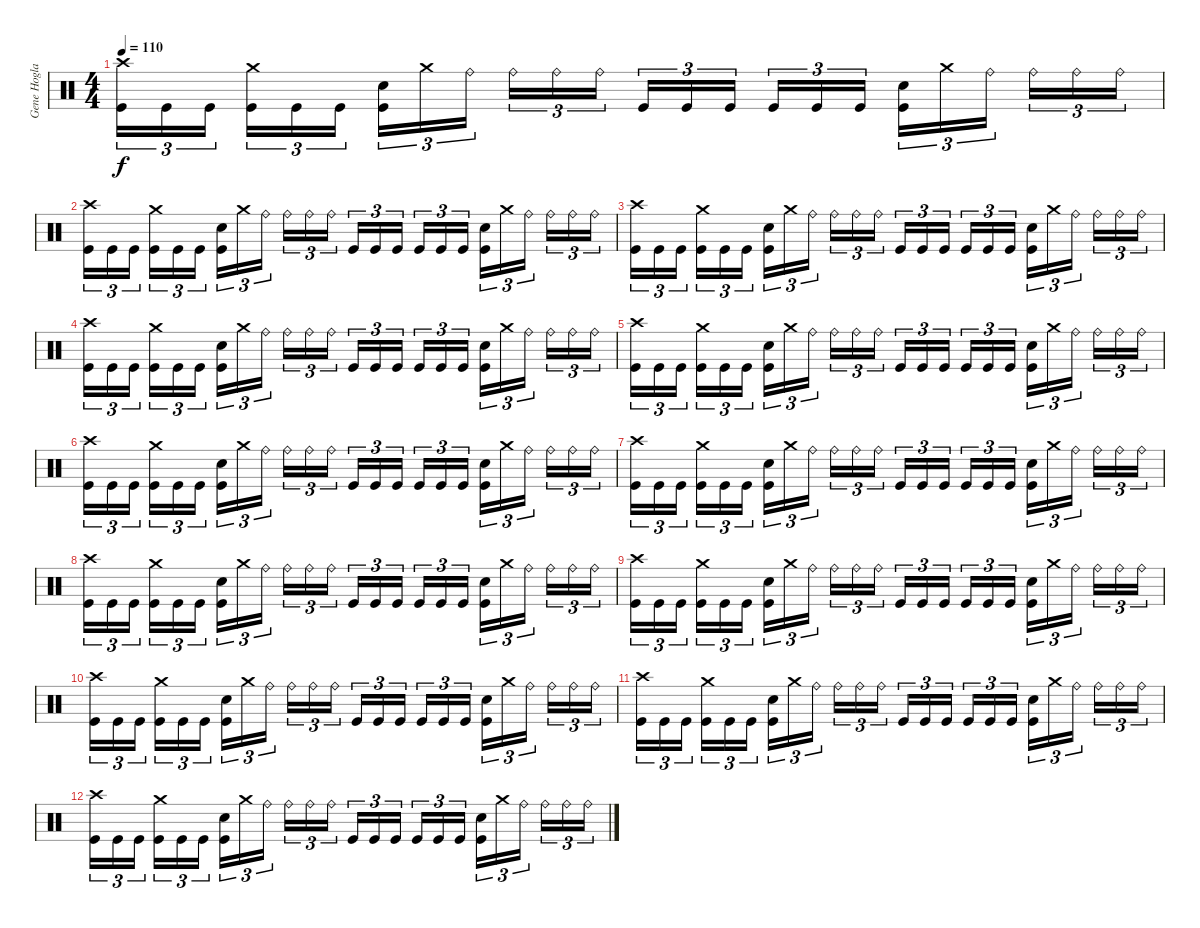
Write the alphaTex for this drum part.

\track ("Gene Hoglan" "Gene Hogla") {instrument percussion}
\staff {score}
\articulation defaults
\ts (4 4)
\tempo 110
\clef neutral
\ks c
("Crash high (hit)" "Kick (hit)").16{tu (3 2) dy f} "Kick (hit)".16{tu (3 2)} "Kick (hit)".16{tu (3 2) beam splitsecondary} ("Crash medium (hit)" "Kick (hit)").16{tu (3 2)} "Kick (hit)".16{tu (3 2)} "Kick (hit)".16{tu (3 2)} ("Electric Snare (hit)" "Kick (hit)").16{tu (3 2)} "Crash medium (hit)".16{tu (3 2)} "Ride (bell)".16{tu (3 2) beam splitsecondary} "Ride (bell)".16{tu (3 2)} "Ride (bell)".16{tu (3 2)} "Ride (bell)".16{tu (3 2)} "Kick (hit)".16{tu (3 2)} "Kick (hit)".16{tu (3 2)} "Kick (hit)".16{tu (3 2) beam splitsecondary} "Kick (hit)".16{tu (3 2)} "Kick (hit)".16{tu (3 2)} "Kick (hit)".16{tu (3 2)} ("Electric Snare (hit)" "Kick (hit)").16{tu (3 2)} "Crash medium (hit)".16{tu (3 2)} "Ride (bell)".16{tu (3 2) beam splitsecondary} "Ride (bell)".16{tu (3 2)} "Ride (bell)".16{tu (3 2)} "Ride (bell)".16{tu (3 2)} |
("Crash high (hit)" "Kick (hit)").16{tu (3 2)} "Kick (hit)".16{tu (3 2)} "Kick (hit)".16{tu (3 2) beam splitsecondary} ("Crash medium (hit)" "Kick (hit)").16{tu (3 2)} "Kick (hit)".16{tu (3 2)} "Kick (hit)".16{tu (3 2)} ("Electric Snare (hit)" "Kick (hit)").16{tu (3 2)} "Crash medium (hit)".16{tu (3 2)} "Ride (bell)".16{tu (3 2) beam splitsecondary} "Ride (bell)".16{tu (3 2)} "Ride (bell)".16{tu (3 2)} "Ride (bell)".16{tu (3 2)} "Kick (hit)".16{tu (3 2)} "Kick (hit)".16{tu (3 2)} "Kick (hit)".16{tu (3 2) beam splitsecondary} "Kick (hit)".16{tu (3 2)} "Kick (hit)".16{tu (3 2)} "Kick (hit)".16{tu (3 2)} ("Electric Snare (hit)" "Kick (hit)").16{tu (3 2)} "Crash medium (hit)".16{tu (3 2)} "Ride (bell)".16{tu (3 2) beam splitsecondary} "Ride (bell)".16{tu (3 2)} "Ride (bell)".16{tu (3 2)} "Ride (bell)".16{tu (3 2)} |
("Crash high (hit)" "Kick (hit)").16{tu (3 2)} "Kick (hit)".16{tu (3 2)} "Kick (hit)".16{tu (3 2) beam splitsecondary} ("Crash medium (hit)" "Kick (hit)").16{tu (3 2)} "Kick (hit)".16{tu (3 2)} "Kick (hit)".16{tu (3 2)} ("Electric Snare (hit)" "Kick (hit)").16{tu (3 2)} "Crash medium (hit)".16{tu (3 2)} "Ride (bell)".16{tu (3 2) beam splitsecondary} "Ride (bell)".16{tu (3 2)} "Ride (bell)".16{tu (3 2)} "Ride (bell)".16{tu (3 2)} "Kick (hit)".16{tu (3 2)} "Kick (hit)".16{tu (3 2)} "Kick (hit)".16{tu (3 2) beam splitsecondary} "Kick (hit)".16{tu (3 2)} "Kick (hit)".16{tu (3 2)} "Kick (hit)".16{tu (3 2)} ("Electric Snare (hit)" "Kick (hit)").16{tu (3 2)} "Crash medium (hit)".16{tu (3 2)} "Ride (bell)".16{tu (3 2) beam splitsecondary} "Ride (bell)".16{tu (3 2)} "Ride (bell)".16{tu (3 2)} "Ride (bell)".16{tu (3 2)} |
("Crash high (hit)" "Kick (hit)").16{tu (3 2)} "Kick (hit)".16{tu (3 2)} "Kick (hit)".16{tu (3 2) beam splitsecondary} ("Crash medium (hit)" "Kick (hit)").16{tu (3 2)} "Kick (hit)".16{tu (3 2)} "Kick (hit)".16{tu (3 2)} ("Electric Snare (hit)" "Kick (hit)").16{tu (3 2)} "Crash medium (hit)".16{tu (3 2)} "Ride (bell)".16{tu (3 2) beam splitsecondary} "Ride (bell)".16{tu (3 2)} "Ride (bell)".16{tu (3 2)} "Ride (bell)".16{tu (3 2)} "Kick (hit)".16{tu (3 2)} "Kick (hit)".16{tu (3 2)} "Kick (hit)".16{tu (3 2) beam splitsecondary} "Kick (hit)".16{tu (3 2)} "Kick (hit)".16{tu (3 2)} "Kick (hit)".16{tu (3 2)} ("Electric Snare (hit)" "Kick (hit)").16{tu (3 2)} "Crash medium (hit)".16{tu (3 2)} "Ride (bell)".16{tu (3 2) beam splitsecondary} "Ride (bell)".16{tu (3 2)} "Ride (bell)".16{tu (3 2)} "Ride (bell)".16{tu (3 2)} |
("Crash high (hit)" "Kick (hit)").16{tu (3 2)} "Kick (hit)".16{tu (3 2)} "Kick (hit)".16{tu (3 2) beam splitsecondary} ("Crash medium (hit)" "Kick (hit)").16{tu (3 2)} "Kick (hit)".16{tu (3 2)} "Kick (hit)".16{tu (3 2)} ("Electric Snare (hit)" "Kick (hit)").16{tu (3 2)} "Crash medium (hit)".16{tu (3 2)} "Ride (bell)".16{tu (3 2) beam splitsecondary} "Ride (bell)".16{tu (3 2)} "Ride (bell)".16{tu (3 2)} "Ride (bell)".16{tu (3 2)} "Kick (hit)".16{tu (3 2)} "Kick (hit)".16{tu (3 2)} "Kick (hit)".16{tu (3 2) beam splitsecondary} "Kick (hit)".16{tu (3 2)} "Kick (hit)".16{tu (3 2)} "Kick (hit)".16{tu (3 2)} ("Electric Snare (hit)" "Kick (hit)").16{tu (3 2)} "Crash medium (hit)".16{tu (3 2)} "Ride (bell)".16{tu (3 2) beam splitsecondary} "Ride (bell)".16{tu (3 2)} "Ride (bell)".16{tu (3 2)} "Ride (bell)".16{tu (3 2)} |
("Crash high (hit)" "Kick (hit)").16{tu (3 2)} "Kick (hit)".16{tu (3 2)} "Kick (hit)".16{tu (3 2) beam splitsecondary} ("Crash medium (hit)" "Kick (hit)").16{tu (3 2)} "Kick (hit)".16{tu (3 2)} "Kick (hit)".16{tu (3 2)} ("Electric Snare (hit)" "Kick (hit)").16{tu (3 2)} "Crash medium (hit)".16{tu (3 2)} "Ride (bell)".16{tu (3 2) beam splitsecondary} "Ride (bell)".16{tu (3 2)} "Ride (bell)".16{tu (3 2)} "Ride (bell)".16{tu (3 2)} "Kick (hit)".16{tu (3 2)} "Kick (hit)".16{tu (3 2)} "Kick (hit)".16{tu (3 2) beam splitsecondary} "Kick (hit)".16{tu (3 2)} "Kick (hit)".16{tu (3 2)} "Kick (hit)".16{tu (3 2)} ("Electric Snare (hit)" "Kick (hit)").16{tu (3 2)} "Crash medium (hit)".16{tu (3 2)} "Ride (bell)".16{tu (3 2) beam splitsecondary} "Ride (bell)".16{tu (3 2)} "Ride (bell)".16{tu (3 2)} "Ride (bell)".16{tu (3 2)} |
("Crash high (hit)" "Kick (hit)").16{tu (3 2)} "Kick (hit)".16{tu (3 2)} "Kick (hit)".16{tu (3 2) beam splitsecondary} ("Crash medium (hit)" "Kick (hit)").16{tu (3 2)} "Kick (hit)".16{tu (3 2)} "Kick (hit)".16{tu (3 2)} ("Electric Snare (hit)" "Kick (hit)").16{tu (3 2)} "Crash medium (hit)".16{tu (3 2)} "Ride (bell)".16{tu (3 2) beam splitsecondary} "Ride (bell)".16{tu (3 2)} "Ride (bell)".16{tu (3 2)} "Ride (bell)".16{tu (3 2)} "Kick (hit)".16{tu (3 2)} "Kick (hit)".16{tu (3 2)} "Kick (hit)".16{tu (3 2) beam splitsecondary} "Kick (hit)".16{tu (3 2)} "Kick (hit)".16{tu (3 2)} "Kick (hit)".16{tu (3 2)} ("Electric Snare (hit)" "Kick (hit)").16{tu (3 2)} "Crash medium (hit)".16{tu (3 2)} "Ride (bell)".16{tu (3 2) beam splitsecondary} "Ride (bell)".16{tu (3 2)} "Ride (bell)".16{tu (3 2)} "Ride (bell)".16{tu (3 2)} |
("Crash high (hit)" "Kick (hit)").16{tu (3 2)} "Kick (hit)".16{tu (3 2)} "Kick (hit)".16{tu (3 2) beam splitsecondary} ("Crash medium (hit)" "Kick (hit)").16{tu (3 2)} "Kick (hit)".16{tu (3 2)} "Kick (hit)".16{tu (3 2)} ("Electric Snare (hit)" "Kick (hit)").16{tu (3 2)} "Crash medium (hit)".16{tu (3 2)} "Ride (bell)".16{tu (3 2) beam splitsecondary} "Ride (bell)".16{tu (3 2)} "Ride (bell)".16{tu (3 2)} "Ride (bell)".16{tu (3 2)} "Kick (hit)".16{tu (3 2)} "Kick (hit)".16{tu (3 2)} "Kick (hit)".16{tu (3 2) beam splitsecondary} "Kick (hit)".16{tu (3 2)} "Kick (hit)".16{tu (3 2)} "Kick (hit)".16{tu (3 2)} ("Electric Snare (hit)" "Kick (hit)").16{tu (3 2)} "Crash medium (hit)".16{tu (3 2)} "Ride (bell)".16{tu (3 2) beam splitsecondary} "Ride (bell)".16{tu (3 2)} "Ride (bell)".16{tu (3 2)} "Ride (bell)".16{tu (3 2)} |
("Crash high (hit)" "Kick (hit)").16{tu (3 2)} "Kick (hit)".16{tu (3 2)} "Kick (hit)".16{tu (3 2) beam splitsecondary} ("Crash medium (hit)" "Kick (hit)").16{tu (3 2)} "Kick (hit)".16{tu (3 2)} "Kick (hit)".16{tu (3 2)} ("Electric Snare (hit)" "Kick (hit)").16{tu (3 2)} "Crash medium (hit)".16{tu (3 2)} "Ride (bell)".16{tu (3 2) beam splitsecondary} "Ride (bell)".16{tu (3 2)} "Ride (bell)".16{tu (3 2)} "Ride (bell)".16{tu (3 2)} "Kick (hit)".16{tu (3 2)} "Kick (hit)".16{tu (3 2)} "Kick (hit)".16{tu (3 2) beam splitsecondary} "Kick (hit)".16{tu (3 2)} "Kick (hit)".16{tu (3 2)} "Kick (hit)".16{tu (3 2)} ("Electric Snare (hit)" "Kick (hit)").16{tu (3 2)} "Crash medium (hit)".16{tu (3 2)} "Ride (bell)".16{tu (3 2) beam splitsecondary} "Ride (bell)".16{tu (3 2)} "Ride (bell)".16{tu (3 2)} "Ride (bell)".16{tu (3 2)} |
("Crash high (hit)" "Kick (hit)").16{tu (3 2)} "Kick (hit)".16{tu (3 2)} "Kick (hit)".16{tu (3 2) beam splitsecondary} ("Crash medium (hit)" "Kick (hit)").16{tu (3 2)} "Kick (hit)".16{tu (3 2)} "Kick (hit)".16{tu (3 2)} ("Electric Snare (hit)" "Kick (hit)").16{tu (3 2)} "Crash medium (hit)".16{tu (3 2)} "Ride (bell)".16{tu (3 2) beam splitsecondary} "Ride (bell)".16{tu (3 2)} "Ride (bell)".16{tu (3 2)} "Ride (bell)".16{tu (3 2)} "Kick (hit)".16{tu (3 2)} "Kick (hit)".16{tu (3 2)} "Kick (hit)".16{tu (3 2) beam splitsecondary} "Kick (hit)".16{tu (3 2)} "Kick (hit)".16{tu (3 2)} "Kick (hit)".16{tu (3 2)} ("Electric Snare (hit)" "Kick (hit)").16{tu (3 2)} "Crash medium (hit)".16{tu (3 2)} "Ride (bell)".16{tu (3 2) beam splitsecondary} "Ride (bell)".16{tu (3 2)} "Ride (bell)".16{tu (3 2)} "Ride (bell)".16{tu (3 2)} |
("Crash high (hit)" "Kick (hit)").16{tu (3 2)} "Kick (hit)".16{tu (3 2)} "Kick (hit)".16{tu (3 2) beam splitsecondary} ("Crash medium (hit)" "Kick (hit)").16{tu (3 2)} "Kick (hit)".16{tu (3 2)} "Kick (hit)".16{tu (3 2)} ("Electric Snare (hit)" "Kick (hit)").16{tu (3 2)} "Crash medium (hit)".16{tu (3 2)} "Ride (bell)".16{tu (3 2) beam splitsecondary} "Ride (bell)".16{tu (3 2)} "Ride (bell)".16{tu (3 2)} "Ride (bell)".16{tu (3 2)} "Kick (hit)".16{tu (3 2)} "Kick (hit)".16{tu (3 2)} "Kick (hit)".16{tu (3 2) beam splitsecondary} "Kick (hit)".16{tu (3 2)} "Kick (hit)".16{tu (3 2)} "Kick (hit)".16{tu (3 2)} ("Electric Snare (hit)" "Kick (hit)").16{tu (3 2)} "Crash medium (hit)".16{tu (3 2)} "Ride (bell)".16{tu (3 2) beam splitsecondary} "Ride (bell)".16{tu (3 2)} "Ride (bell)".16{tu (3 2)} "Ride (bell)".16{tu (3 2)} |
("Crash high (hit)" "Kick (hit)").16{tu (3 2)} "Kick (hit)".16{tu (3 2)} "Kick (hit)".16{tu (3 2) beam splitsecondary} ("Crash medium (hit)" "Kick (hit)").16{tu (3 2)} "Kick (hit)".16{tu (3 2)} "Kick (hit)".16{tu (3 2)} ("Electric Snare (hit)" "Kick (hit)").16{tu (3 2)} "Crash medium (hit)".16{tu (3 2)} "Ride (bell)".16{tu (3 2) beam splitsecondary} "Ride (bell)".16{tu (3 2)} "Ride (bell)".16{tu (3 2)} "Ride (bell)".16{tu (3 2)} "Kick (hit)".16{tu (3 2)} "Kick (hit)".16{tu (3 2)} "Kick (hit)".16{tu (3 2) beam splitsecondary} "Kick (hit)".16{tu (3 2)} "Kick (hit)".16{tu (3 2)} "Kick (hit)".16{tu (3 2)} ("Electric Snare (hit)" "Kick (hit)").16{tu (3 2)} "Crash medium (hit)".16{tu (3 2)} "Ride (bell)".16{tu (3 2) beam splitsecondary} "Ride (bell)".16{tu (3 2)} "Ride (bell)".16{tu (3 2)} "Ride (bell)".16{tu (3 2)}
